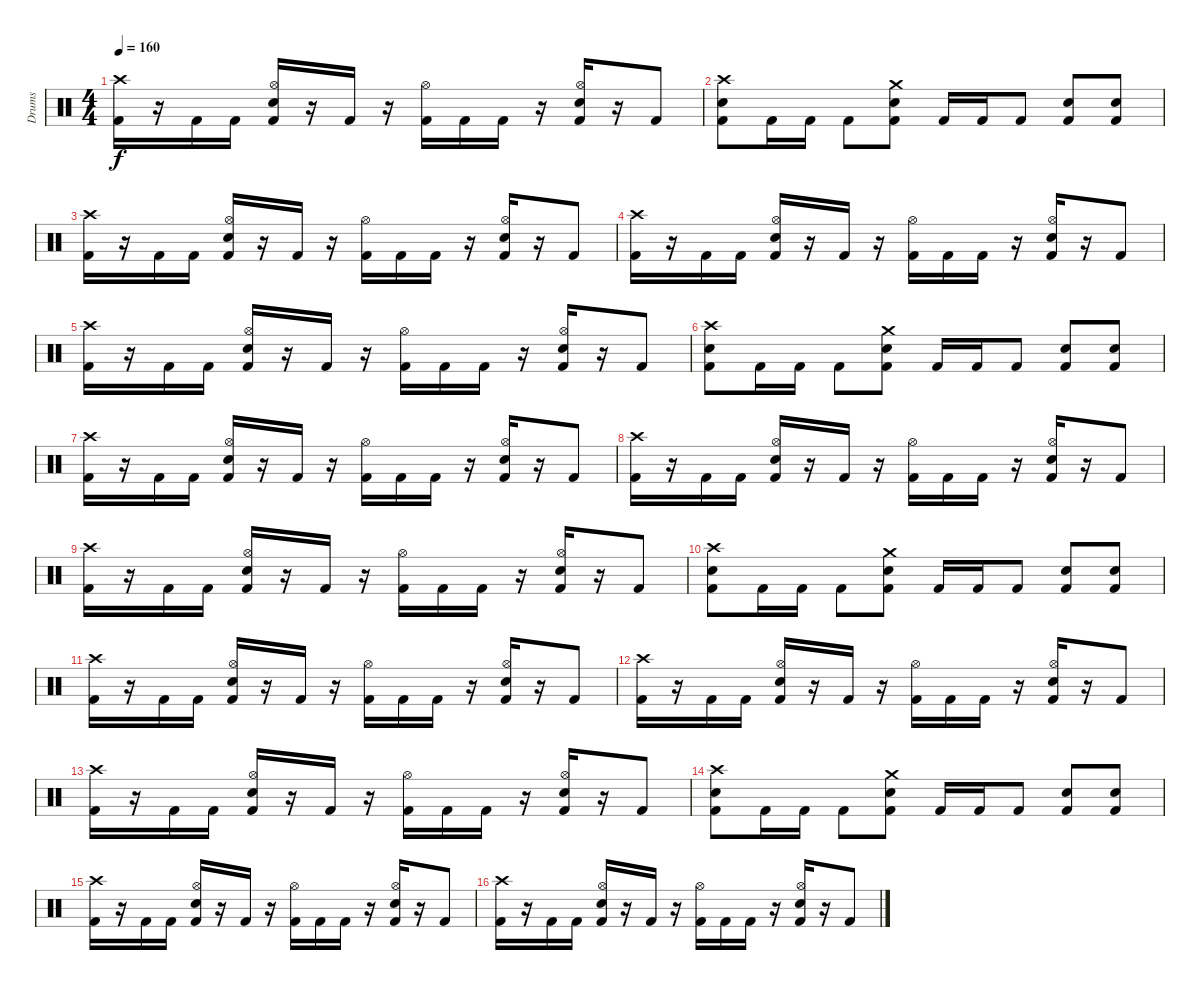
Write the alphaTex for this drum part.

\track ("Drums" "Drums") {instrument percussion}
\staff {score}
\articulation defaults
\ts (4 4)
\tempo 160
\clef neutral
\ks c
("Crash high (hit)" "Kick (hit) 2").16{dy f} r.16 "Kick (hit) 2".16 "Kick (hit) 2".16 ("Hi-Hat (open)" "Electric Snare (hit)" "Kick (hit) 2").16 r.16 "Kick (hit) 2".16 r.16 ("Hi-Hat (open)" "Kick (hit) 2").16 "Kick (hit) 2".16 "Kick (hit) 2".16 r.16 ("Hi-Hat (open)" "Electric Snare (hit)" "Kick (hit) 2").16 r.16 "Kick (hit) 2".8 |
("Crash high (hit)" "Electric Snare (hit)" "Kick (hit) 2").8 "Kick (hit) 2".16 "Kick (hit) 2".16 "Kick (hit) 2".8 ("Crash medium (hit)" "Electric Snare (hit)" "Kick (hit) 2").8 "Kick (hit) 2".16 "Kick (hit) 2".16 "Kick (hit) 2".8 ("Electric Snare (hit)" "Kick (hit) 2").8 ("Electric Snare (hit)" "Kick (hit) 2").8 |
("Crash high (hit)" "Kick (hit) 2").16 r.16 "Kick (hit) 2".16 "Kick (hit) 2".16 ("Hi-Hat (open)" "Electric Snare (hit)" "Kick (hit) 2").16 r.16 "Kick (hit) 2".16 r.16 ("Hi-Hat (open)" "Kick (hit) 2").16 "Kick (hit) 2".16 "Kick (hit) 2".16 r.16 ("Hi-Hat (open)" "Electric Snare (hit)" "Kick (hit) 2").16 r.16 "Kick (hit) 2".8 |
("Crash high (hit)" "Kick (hit) 2").16 r.16 "Kick (hit) 2".16 "Kick (hit) 2".16 ("Hi-Hat (open)" "Electric Snare (hit)" "Kick (hit) 2").16 r.16 "Kick (hit) 2".16 r.16 ("Hi-Hat (open)" "Kick (hit) 2").16 "Kick (hit) 2".16 "Kick (hit) 2".16 r.16 ("Hi-Hat (open)" "Electric Snare (hit)" "Kick (hit) 2").16 r.16 "Kick (hit) 2".8 |
("Crash high (hit)" "Kick (hit) 2").16 r.16 "Kick (hit) 2".16 "Kick (hit) 2".16 ("Hi-Hat (open)" "Electric Snare (hit)" "Kick (hit) 2").16 r.16 "Kick (hit) 2".16 r.16 ("Hi-Hat (open)" "Kick (hit) 2").16 "Kick (hit) 2".16 "Kick (hit) 2".16 r.16 ("Hi-Hat (open)" "Electric Snare (hit)" "Kick (hit) 2").16 r.16 "Kick (hit) 2".8 |
("Crash high (hit)" "Electric Snare (hit)" "Kick (hit) 2").8 "Kick (hit) 2".16 "Kick (hit) 2".16 "Kick (hit) 2".8 ("Crash medium (hit)" "Electric Snare (hit)" "Kick (hit) 2").8 "Kick (hit) 2".16 "Kick (hit) 2".16 "Kick (hit) 2".8 ("Electric Snare (hit)" "Kick (hit) 2").8 ("Electric Snare (hit)" "Kick (hit) 2").8 |
("Crash high (hit)" "Kick (hit) 2").16 r.16 "Kick (hit) 2".16 "Kick (hit) 2".16 ("Hi-Hat (open)" "Electric Snare (hit)" "Kick (hit) 2").16 r.16 "Kick (hit) 2".16 r.16 ("Hi-Hat (open)" "Kick (hit) 2").16 "Kick (hit) 2".16 "Kick (hit) 2".16 r.16 ("Hi-Hat (open)" "Electric Snare (hit)" "Kick (hit) 2").16 r.16 "Kick (hit) 2".8 |
("Crash high (hit)" "Kick (hit) 2").16 r.16 "Kick (hit) 2".16 "Kick (hit) 2".16 ("Hi-Hat (open)" "Electric Snare (hit)" "Kick (hit) 2").16 r.16 "Kick (hit) 2".16 r.16 ("Hi-Hat (open)" "Kick (hit) 2").16 "Kick (hit) 2".16 "Kick (hit) 2".16 r.16 ("Hi-Hat (open)" "Electric Snare (hit)" "Kick (hit) 2").16 r.16 "Kick (hit) 2".8 |
("Crash high (hit)" "Kick (hit) 2").16 r.16 "Kick (hit) 2".16 "Kick (hit) 2".16 ("Hi-Hat (open)" "Electric Snare (hit)" "Kick (hit) 2").16 r.16 "Kick (hit) 2".16 r.16 ("Hi-Hat (open)" "Kick (hit) 2").16 "Kick (hit) 2".16 "Kick (hit) 2".16 r.16 ("Hi-Hat (open)" "Electric Snare (hit)" "Kick (hit) 2").16 r.16 "Kick (hit) 2".8 |
("Crash high (hit)" "Electric Snare (hit)" "Kick (hit) 2").8 "Kick (hit) 2".16 "Kick (hit) 2".16 "Kick (hit) 2".8 ("Crash medium (hit)" "Electric Snare (hit)" "Kick (hit) 2").8 "Kick (hit) 2".16 "Kick (hit) 2".16 "Kick (hit) 2".8 ("Electric Snare (hit)" "Kick (hit) 2").8 ("Electric Snare (hit)" "Kick (hit) 2").8 |
("Crash high (hit)" "Kick (hit) 2").16 r.16 "Kick (hit) 2".16 "Kick (hit) 2".16 ("Hi-Hat (open)" "Electric Snare (hit)" "Kick (hit) 2").16 r.16 "Kick (hit) 2".16 r.16 ("Hi-Hat (open)" "Kick (hit) 2").16 "Kick (hit) 2".16 "Kick (hit) 2".16 r.16 ("Hi-Hat (open)" "Electric Snare (hit)" "Kick (hit) 2").16 r.16 "Kick (hit) 2".8 |
("Crash high (hit)" "Kick (hit) 2").16 r.16 "Kick (hit) 2".16 "Kick (hit) 2".16 ("Hi-Hat (open)" "Electric Snare (hit)" "Kick (hit) 2").16 r.16 "Kick (hit) 2".16 r.16 ("Hi-Hat (open)" "Kick (hit) 2").16 "Kick (hit) 2".16 "Kick (hit) 2".16 r.16 ("Hi-Hat (open)" "Electric Snare (hit)" "Kick (hit) 2").16 r.16 "Kick (hit) 2".8 |
("Crash high (hit)" "Kick (hit) 2").16 r.16 "Kick (hit) 2".16 "Kick (hit) 2".16 ("Hi-Hat (open)" "Electric Snare (hit)" "Kick (hit) 2").16 r.16 "Kick (hit) 2".16 r.16 ("Hi-Hat (open)" "Kick (hit) 2").16 "Kick (hit) 2".16 "Kick (hit) 2".16 r.16 ("Hi-Hat (open)" "Electric Snare (hit)" "Kick (hit) 2").16 r.16 "Kick (hit) 2".8 |
("Crash high (hit)" "Electric Snare (hit)" "Kick (hit) 2").8 "Kick (hit) 2".16 "Kick (hit) 2".16 "Kick (hit) 2".8 ("Crash medium (hit)" "Electric Snare (hit)" "Kick (hit) 2").8 "Kick (hit) 2".16 "Kick (hit) 2".16 "Kick (hit) 2".8 ("Electric Snare (hit)" "Kick (hit) 2").8 ("Electric Snare (hit)" "Kick (hit) 2").8 |
("Crash high (hit)" "Kick (hit) 2").16 r.16 "Kick (hit) 2".16 "Kick (hit) 2".16 ("Hi-Hat (open)" "Electric Snare (hit)" "Kick (hit) 2").16 r.16 "Kick (hit) 2".16 r.16 ("Hi-Hat (open)" "Kick (hit) 2").16 "Kick (hit) 2".16 "Kick (hit) 2".16 r.16 ("Hi-Hat (open)" "Electric Snare (hit)" "Kick (hit) 2").16 r.16 "Kick (hit) 2".8 |
("Crash high (hit)" "Kick (hit) 2").16 r.16 "Kick (hit) 2".16 "Kick (hit) 2".16 ("Hi-Hat (open)" "Electric Snare (hit)" "Kick (hit) 2").16 r.16 "Kick (hit) 2".16 r.16 ("Hi-Hat (open)" "Kick (hit) 2").16 "Kick (hit) 2".16 "Kick (hit) 2".16 r.16 ("Hi-Hat (open)" "Electric Snare (hit)" "Kick (hit) 2").16 r.16 "Kick (hit) 2".8
